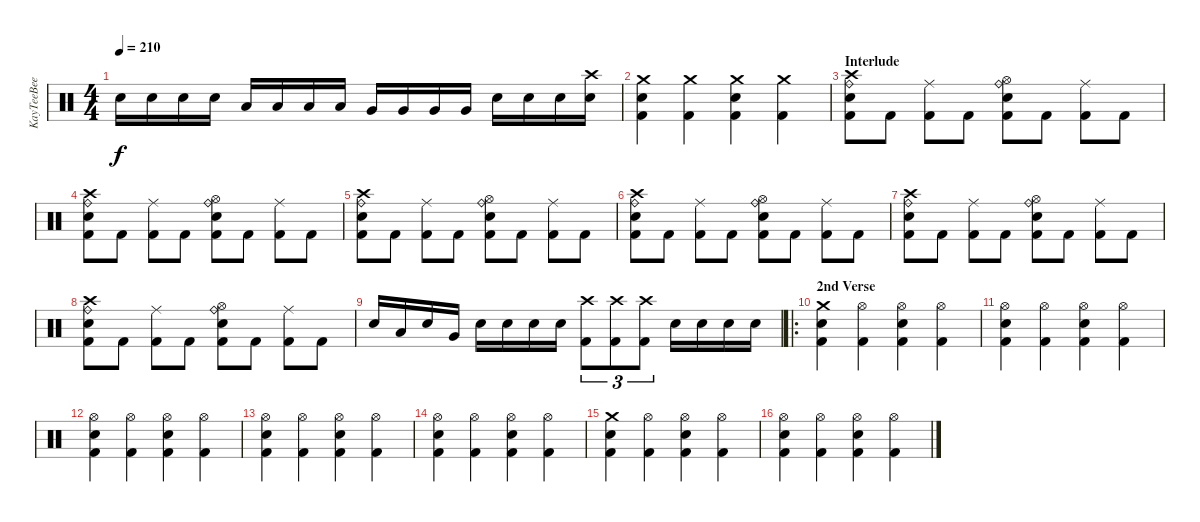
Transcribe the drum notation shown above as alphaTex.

\track ("KayTeeBee" "KayTeeBee") {instrument percussion}
\staff {score}
\articulation defaults
\ts (4 4)
\tempo 210
\clef neutral
\ks c "Electric Snare (hit)".16{dy f} "Electric Snare (hit)".16 "Electric Snare (hit)".16 "Electric Snare (hit)".16 "Low Tom (hit)".16 "Low Tom (hit)".16 "Low Tom (hit)".16 "Low Tom (hit)".16 "Very Low Tom (hit)".16 "Very Low Tom (hit)".16 "Very Low Tom (hit)".16 "Very Low Tom (hit)".16 "Electric Snare (hit)".16 "Electric Snare (hit)".16 "Electric Snare (hit)".16
("Electric Snare (hit)" "Crash high (hit)").16 |
("Kick (hit) 2" "Crash medium (hit)" "Electric Snare (hit)").4 ("Kick (hit) 2" "Crash medium (hit)").4 ("Kick (hit) 2" "Crash medium (hit)" "Electric Snare (hit)").4 ("Kick (hit) 2" "Crash medium (hit)").4 |
\section ("" "Interlude")
("Kick (hit) 2" "Crash high (hit)" "Ride (bell)" "Electric Snare (hit)").8 "Kick (hit) 2".8 ("Kick (hit) 2" "Ride (middle)").8 "Kick (hit) 2".8 ("Kick (hit) 2" "Electric Snare (hit)" "Ride (bell)" "Hi-Hat (open)").8 "Kick (hit) 2".8 ("Kick (hit) 2" "Ride (middle)").8 "Kick (hit) 2".8 |
("Kick (hit) 2" "Crash high (hit)" "Ride (bell)" "Electric Snare (hit)").8 "Kick (hit) 2".8 ("Kick (hit) 2" "Ride (middle)").8 "Kick (hit) 2".8 ("Kick (hit) 2" "Electric Snare (hit)" "Ride (bell)" "Hi-Hat (open)").8 "Kick (hit) 2".8 ("Kick (hit) 2" "Ride (middle)").8 "Kick (hit) 2".8 |
("Kick (hit) 2" "Crash high (hit)" "Ride (bell)" "Electric Snare (hit)").8 "Kick (hit) 2".8 ("Kick (hit) 2" "Ride (middle)").8 "Kick (hit) 2".8 ("Kick (hit) 2" "Electric Snare (hit)" "Ride (bell)" "Hi-Hat (open)").8 "Kick (hit) 2".8 ("Kick (hit) 2" "Ride (middle)").8 "Kick (hit) 2".8 |
("Kick (hit) 2" "Crash high (hit)" "Ride (bell)" "Electric Snare (hit)").8 "Kick (hit) 2".8 ("Kick (hit) 2" "Ride (middle)").8 "Kick (hit) 2".8 ("Kick (hit) 2" "Electric Snare (hit)" "Ride (bell)" "Hi-Hat (open)").8 "Kick (hit) 2".8 ("Kick (hit) 2" "Ride (middle)").8 "Kick (hit) 2".8 |
("Kick (hit) 2" "Crash high (hit)" "Ride (bell)" "Electric Snare (hit)").8 "Kick (hit) 2".8 ("Kick (hit) 2" "Ride (middle)").8 "Kick (hit) 2".8 ("Kick (hit) 2" "Electric Snare (hit)" "Ride (bell)" "Hi-Hat (open)").8 "Kick (hit) 2".8 ("Kick (hit) 2" "Ride (middle)").8 "Kick (hit) 2".8 |
("Kick (hit) 2" "Crash high (hit)" "Ride (bell)" "Electric Snare (hit)").8 "Kick (hit) 2".8 ("Kick (hit) 2" "Ride (middle)").8 "Kick (hit) 2".8 ("Kick (hit) 2" "Electric Snare (hit)" "Ride (bell)" "Hi-Hat (open)").8 "Kick (hit) 2".8 ("Kick (hit) 2" "Ride (middle)").8 "Kick (hit) 2".8 |
"Electric Snare (hit)".16 "Low Tom (hit)".16 "Electric Snare (hit)".16 "Very Low Tom (hit)".16 "Electric Snare (hit)".16 "Electric Snare (hit)".16 "Electric Snare (hit)".16 "Electric Snare (hit)".16 ("Kick (hit) 2" "Crash high (hit)").8{tu (3 2)} ("Kick (hit) 2" "Crash high (hit)").8{tu (3 2)} ("Kick (hit) 2" "Crash high (hit)").8{tu (3 2)} "Electric Snare (hit)".16 "Electric Snare (hit)".16 "Electric Snare (hit)".16 "Electric Snare (hit)".16 |
\ro
\section ("" "2nd Verse")
("Crash medium (hit)" "Electric Snare (hit)" "Kick (hit) 2").4 ("Hi-Hat (open)" "Kick (hit) 2").4 ("Hi-Hat (open)" "Electric Snare (hit)" "Kick (hit) 2").4 ("Hi-Hat (open)" "Kick (hit) 2").4 |
("Hi-Hat (open)" "Electric Snare (hit)" "Kick (hit) 2").4 ("Hi-Hat (open)" "Kick (hit) 2").4 ("Hi-Hat (open)" "Electric Snare (hit)" "Kick (hit) 2").4 ("Hi-Hat (open)" "Kick (hit) 2").4 |
("Hi-Hat (open)" "Electric Snare (hit)" "Kick (hit) 2").4 ("Hi-Hat (open)" "Kick (hit) 2").4 ("Hi-Hat (open)" "Electric Snare (hit)" "Kick (hit) 2").4 ("Hi-Hat (open)" "Kick (hit) 2").4 |
("Hi-Hat (open)" "Electric Snare (hit)" "Kick (hit) 2").4 ("Hi-Hat (open)" "Kick (hit) 2").4 ("Hi-Hat (open)" "Electric Snare (hit)" "Kick (hit) 2").4 ("Hi-Hat (open)" "Kick (hit) 2").4 |
("Hi-Hat (open)" "Electric Snare (hit)" "Kick (hit) 2").4 ("Hi-Hat (open)" "Kick (hit) 2").4 ("Hi-Hat (open)" "Electric Snare (hit)" "Kick (hit) 2").4 ("Hi-Hat (open)" "Kick (hit) 2").4 |
("Crash medium (hit)" "Electric Snare (hit)" "Kick (hit) 2").4 ("Hi-Hat (open)" "Kick (hit) 2").4 ("Hi-Hat (open)" "Electric Snare (hit)" "Kick (hit) 2").4 ("Hi-Hat (open)" "Kick (hit) 2").4 |
("Hi-Hat (open)" "Electric Snare (hit)" "Kick (hit) 2").4 ("Hi-Hat (open)" "Kick (hit) 2").4 ("Hi-Hat (open)" "Electric Snare (hit)" "Kick (hit) 2").4 ("Hi-Hat (open)" "Kick (hit) 2").4
